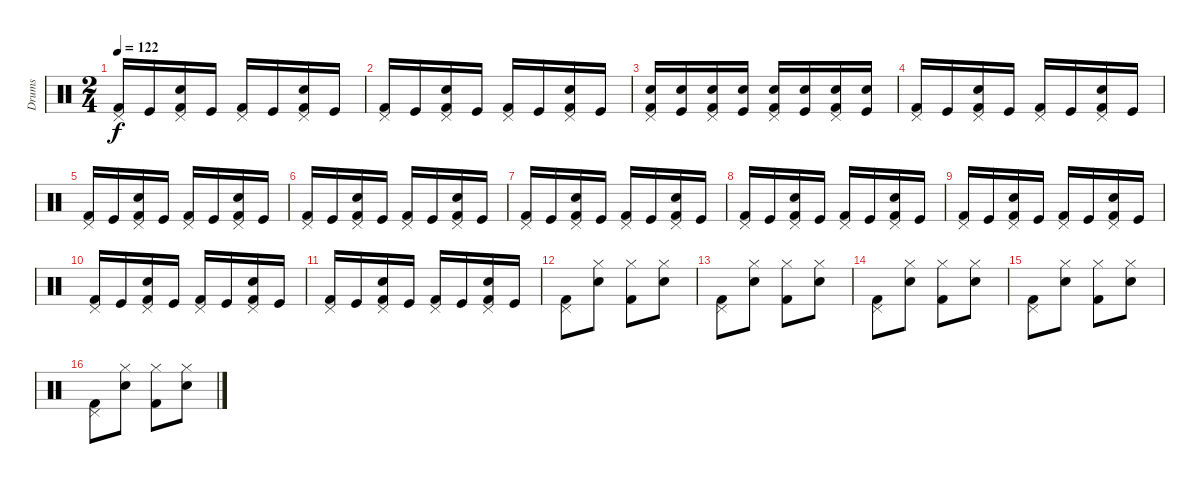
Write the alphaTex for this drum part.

\track ("Drums" "Drums") {instrument percussion}
\staff {score}
\articulation defaults
\ts (2 4)
\tempo 122
\clef neutral
\ks c
("Pedal Hi-Hat (hit)" "Kick (hit) 2").16{dy f} "Kick (hit)".16 ("Pedal Hi-Hat (hit)" "Snare (hit) 2" "Kick (hit) 2").16 "Kick (hit)".16 ("Pedal Hi-Hat (hit)" "Kick (hit) 2").16 "Kick (hit)".16 ("Pedal Hi-Hat (hit)" "Snare (hit) 2" "Kick (hit) 2").16 "Kick (hit)".16 |
("Pedal Hi-Hat (hit)" "Kick (hit) 2").16 "Kick (hit)".16 ("Pedal Hi-Hat (hit)" "Snare (hit) 2" "Kick (hit) 2").16 "Kick (hit)".16 ("Pedal Hi-Hat (hit)" "Kick (hit) 2").16 "Kick (hit)".16 ("Pedal Hi-Hat (hit)" "Snare (hit) 2" "Kick (hit) 2").16 "Kick (hit)".16 |
("Pedal Hi-Hat (hit)" "Snare (hit) 2" "Kick (hit) 2").16 ("Snare (hit) 2" "Kick (hit)").16 ("Pedal Hi-Hat (hit)" "Snare (hit) 2" "Kick (hit) 2").16 ("Snare (hit) 2" "Kick (hit)").16 ("Pedal Hi-Hat (hit)" "Snare (hit) 2" "Kick (hit) 2").16 ("Snare (hit) 2" "Kick (hit)").16 ("Pedal Hi-Hat (hit)" "Snare (hit) 2" "Kick (hit) 2").16 ("Snare (hit) 2" "Kick (hit)").16 |
("Pedal Hi-Hat (hit)" "Kick (hit) 2").16 "Kick (hit)".16 ("Pedal Hi-Hat (hit)" "Snare (hit) 2" "Kick (hit) 2").16 "Kick (hit)".16 ("Pedal Hi-Hat (hit)" "Kick (hit) 2").16 "Kick (hit)".16 ("Pedal Hi-Hat (hit)" "Snare (hit) 2" "Kick (hit) 2").16 "Kick (hit)".16 |
("Pedal Hi-Hat (hit)" "Kick (hit) 2").16 "Kick (hit)".16 ("Pedal Hi-Hat (hit)" "Snare (hit) 2" "Kick (hit) 2").16 "Kick (hit)".16 ("Pedal Hi-Hat (hit)" "Kick (hit) 2").16 "Kick (hit)".16 ("Pedal Hi-Hat (hit)" "Snare (hit) 2" "Kick (hit) 2").16 "Kick (hit)".16 |
("Pedal Hi-Hat (hit)" "Kick (hit) 2").16 "Kick (hit)".16 ("Pedal Hi-Hat (hit)" "Snare (hit) 2" "Kick (hit) 2").16 "Kick (hit)".16 ("Pedal Hi-Hat (hit)" "Kick (hit) 2").16 "Kick (hit)".16 ("Pedal Hi-Hat (hit)" "Snare (hit) 2" "Kick (hit) 2").16 "Kick (hit)".16 |
("Pedal Hi-Hat (hit)" "Kick (hit) 2").16 "Kick (hit)".16 ("Pedal Hi-Hat (hit)" "Snare (hit) 2" "Kick (hit) 2").16 "Kick (hit)".16 ("Pedal Hi-Hat (hit)" "Kick (hit) 2").16 "Kick (hit)".16 ("Pedal Hi-Hat (hit)" "Snare (hit) 2" "Kick (hit) 2").16 "Kick (hit)".16 |
("Pedal Hi-Hat (hit)" "Kick (hit) 2").16 "Kick (hit)".16 ("Pedal Hi-Hat (hit)" "Snare (hit) 2" "Kick (hit) 2").16 "Kick (hit)".16 ("Pedal Hi-Hat (hit)" "Kick (hit) 2").16 "Kick (hit)".16 ("Pedal Hi-Hat (hit)" "Snare (hit) 2" "Kick (hit) 2").16 "Kick (hit)".16 |
("Pedal Hi-Hat (hit)" "Kick (hit) 2").16 "Kick (hit)".16 ("Pedal Hi-Hat (hit)" "Snare (hit) 2" "Kick (hit) 2").16 "Kick (hit)".16 ("Pedal Hi-Hat (hit)" "Kick (hit) 2").16 "Kick (hit)".16 ("Pedal Hi-Hat (hit)" "Snare (hit) 2" "Kick (hit) 2").16 "Kick (hit)".16 |
("Pedal Hi-Hat (hit)" "Kick (hit) 2").16 "Kick (hit)".16 ("Pedal Hi-Hat (hit)" "Snare (hit) 2" "Kick (hit) 2").16 "Kick (hit)".16 ("Pedal Hi-Hat (hit)" "Kick (hit) 2").16 "Kick (hit)".16 ("Pedal Hi-Hat (hit)" "Snare (hit) 2" "Kick (hit) 2").16 "Kick (hit)".16 |
("Pedal Hi-Hat (hit)" "Kick (hit) 2").16 "Kick (hit)".16 ("Pedal Hi-Hat (hit)" "Snare (hit) 2" "Kick (hit) 2").16 "Kick (hit)".16 ("Pedal Hi-Hat (hit)" "Kick (hit) 2").16 "Kick (hit)".16 ("Pedal Hi-Hat (hit)" "Snare (hit) 2" "Kick (hit) 2").16 "Kick (hit)".16 |
("Pedal Hi-Hat (hit)" "Kick (hit) 2").8 ("Hi-Hat (closed)" "Snare (hit) 2").8 ("Hi-Hat (closed)" "Kick (hit) 2").8 ("Hi-Hat (closed)" "Snare (hit) 2").8 |
("Pedal Hi-Hat (hit)" "Kick (hit) 2").8 ("Hi-Hat (closed)" "Snare (hit) 2").8 ("Hi-Hat (closed)" "Kick (hit) 2").8 ("Hi-Hat (closed)" "Snare (hit) 2").8 |
("Pedal Hi-Hat (hit)" "Kick (hit) 2").8 ("Hi-Hat (closed)" "Snare (hit) 2").8 ("Hi-Hat (closed)" "Kick (hit) 2").8 ("Hi-Hat (closed)" "Snare (hit) 2").8 |
("Pedal Hi-Hat (hit)" "Kick (hit) 2").8 ("Hi-Hat (closed)" "Snare (hit) 2").8 ("Hi-Hat (closed)" "Kick (hit) 2").8 ("Hi-Hat (closed)" "Snare (hit) 2").8 |
("Pedal Hi-Hat (hit)" "Kick (hit) 2").8 ("Hi-Hat (closed)" "Snare (hit) 2").8 ("Hi-Hat (closed)" "Kick (hit) 2").8 ("Hi-Hat (closed)" "Snare (hit) 2").8
